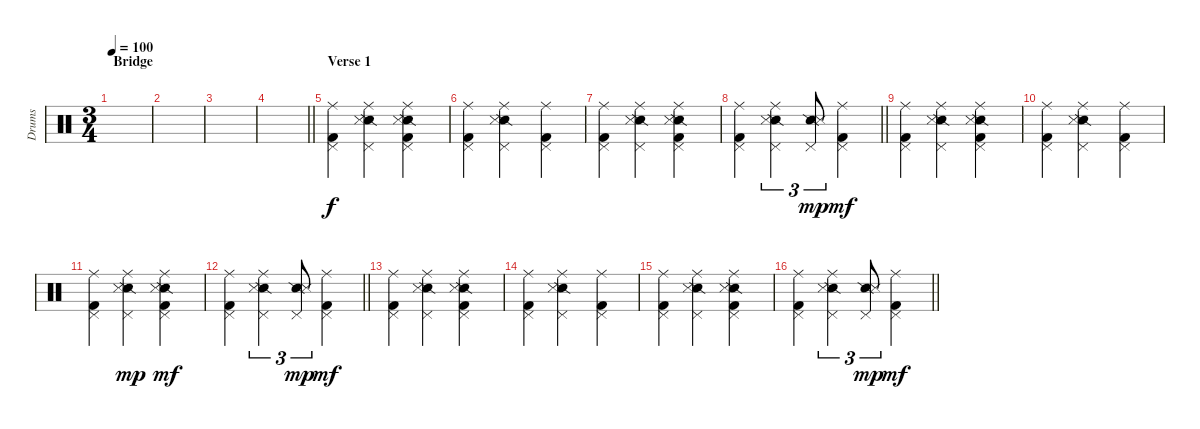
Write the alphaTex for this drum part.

\track ("Drums" "Drums") {instrument percussion}
\staff {score}
\articulation defaults
\ts (3 4)
\section ("" "Bridge")
\tempo 100
\clef neutral
\ks c
|
|
|
\barLineRight lightlight
|
\section ("" "Verse 1")
("Ride (middle)" "Pedal Hi-Hat (hit)" "Kick (hit) 2").4 ("Ride (middle)" "Pedal Hi-Hat (hit)" "Snare (side stick) 2" "Snare (side stick) 3").4 ("Ride (middle)" "Pedal Hi-Hat (hit)" "Snare (side stick) 2" "Snare (side stick) 3" "Kick (hit) 2").4 |
("Ride (middle)" "Pedal Hi-Hat (hit)" "Kick (hit) 2").4 ("Ride (middle)" "Pedal Hi-Hat (hit)" "Snare (side stick) 2" "Snare (side stick) 3").4 ("Ride (middle)" "Pedal Hi-Hat (hit)" "Kick (hit) 2").4 |
("Ride (middle)" "Pedal Hi-Hat (hit)" "Kick (hit) 2").4 ("Ride (middle)" "Pedal Hi-Hat (hit)" "Snare (side stick) 2" "Snare (side stick) 3").4 ("Ride (middle)" "Pedal Hi-Hat (hit)" "Snare (side stick) 2" "Snare (side stick) 3" "Kick (hit) 2").4 |
\barLineRight lightlight
("Ride (middle)" "Pedal Hi-Hat (hit)" "Kick (hit) 2").4 ("Ride (middle)" "Pedal Hi-Hat (hit)" "Snare (side stick) 2" "Snare (side stick) 3").4{tu (3 2)} ("Pedal Hi-Hat (hit)" "Snare (side stick) 2" "Snare (side stick) 3").8{tu (3 2) dy mp} ("Ride (middle)" "Pedal Hi-Hat (hit)" "Kick (hit) 2").4{dy mf} |
("Ride (middle)" "Pedal Hi-Hat (hit)" "Kick (hit) 2").4 ("Ride (middle)" "Pedal Hi-Hat (hit)" "Snare (side stick) 2" "Snare (side stick) 3").4 ("Ride (middle)" "Pedal Hi-Hat (hit)" "Snare (side stick) 2" "Snare (side stick) 3" "Kick (hit) 2").4 |
("Ride (middle)" "Pedal Hi-Hat (hit)" "Kick (hit) 2").4 ("Ride (middle)" "Pedal Hi-Hat (hit)" "Snare (side stick) 2" "Snare (side stick) 3").4 ("Ride (middle)" "Pedal Hi-Hat (hit)" "Kick (hit) 2").4 |
("Ride (middle)" "Pedal Hi-Hat (hit)" "Kick (hit) 2").4 ("Ride (middle)" "Pedal Hi-Hat (hit)" "Snare (side stick) 2" "Snare (side stick) 3").4{dy mp} ("Ride (middle)" "Pedal Hi-Hat (hit)" "Snare (side stick) 2" "Snare (side stick) 3" "Kick (hit) 2").4{dy mf} |
\barLineRight lightlight
("Ride (middle)" "Pedal Hi-Hat (hit)" "Kick (hit) 2").4 ("Ride (middle)" "Pedal Hi-Hat (hit)" "Snare (side stick) 2" "Snare (side stick) 3").4{tu (3 2)} ("Pedal Hi-Hat (hit)" "Snare (side stick) 2" "Snare (side stick) 3").8{tu (3 2) dy mp} ("Ride (middle)" "Pedal Hi-Hat (hit)" "Kick (hit) 2").4{dy mf} |
("Ride (middle)" "Pedal Hi-Hat (hit)" "Kick (hit) 2").4 ("Ride (middle)" "Pedal Hi-Hat (hit)" "Snare (side stick) 2" "Snare (side stick) 3").4 ("Ride (middle)" "Pedal Hi-Hat (hit)" "Snare (side stick) 2" "Snare (side stick) 3" "Kick (hit) 2").4 |
("Ride (middle)" "Pedal Hi-Hat (hit)" "Kick (hit) 2").4 ("Ride (middle)" "Pedal Hi-Hat (hit)" "Snare (side stick) 2" "Snare (side stick) 3").4 ("Ride (middle)" "Pedal Hi-Hat (hit)" "Kick (hit) 2").4 |
("Ride (middle)" "Pedal Hi-Hat (hit)" "Kick (hit) 2").4 ("Ride (middle)" "Pedal Hi-Hat (hit)" "Snare (side stick) 2" "Snare (side stick) 3").4 ("Ride (middle)" "Pedal Hi-Hat (hit)" "Snare (side stick) 2" "Snare (side stick) 3" "Kick (hit) 2").4 |
\barLineRight lightlight
("Ride (middle)" "Pedal Hi-Hat (hit)" "Kick (hit) 2").4 ("Ride (middle)" "Pedal Hi-Hat (hit)" "Snare (side stick) 2" "Snare (side stick) 3").4{tu (3 2)} ("Pedal Hi-Hat (hit)" "Snare (side stick) 2" "Snare (side stick) 3").8{tu (3 2) dy mp} ("Ride (middle)" "Pedal Hi-Hat (hit)" "Kick (hit) 2").4{dy mf}
